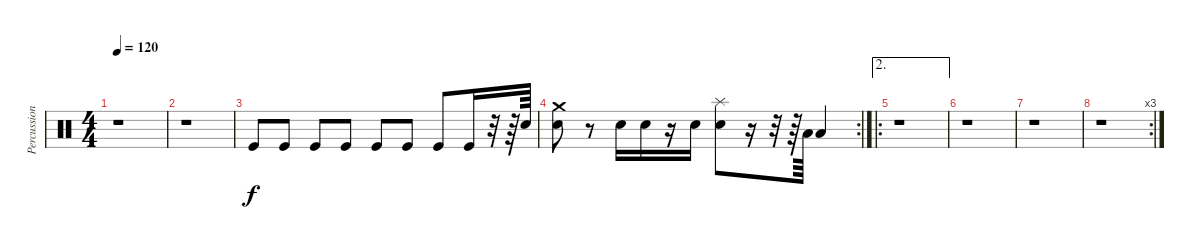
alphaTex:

\track ("Percussions" "Percussion") {instrument percussion}
\staff {score}
\articulation defaults
\ts (4 4)
\tempo 120
\clef neutral
\ks c
r.1{dy f} |
r.1 |
"Kick (hit)".8 "Kick (hit)".8 "Kick (hit)".8 "Kick (hit)".8 "Kick (hit)".8 "Kick (hit)".8 "Kick (hit)".8 "Kick (hit)".16 r.32 r.64 "Electric Snare (hit)".64 |
\rc 2
("Crash medium (hit)" "Electric Snare (hit)").8 r.8 "Electric Snare (hit)".16 "Electric Snare (hit)".16 r.16 "Electric Snare (hit)".16 ("Splash (hit)" "Electric Snare (hit)").8 r.16 r.32 r.64 "Low Tom (hit)".64 "Low Tom (hit)".4 |
\ae 2
\ro
r.1 |
r.1 |
r.1 |
\rc 3
r.1
